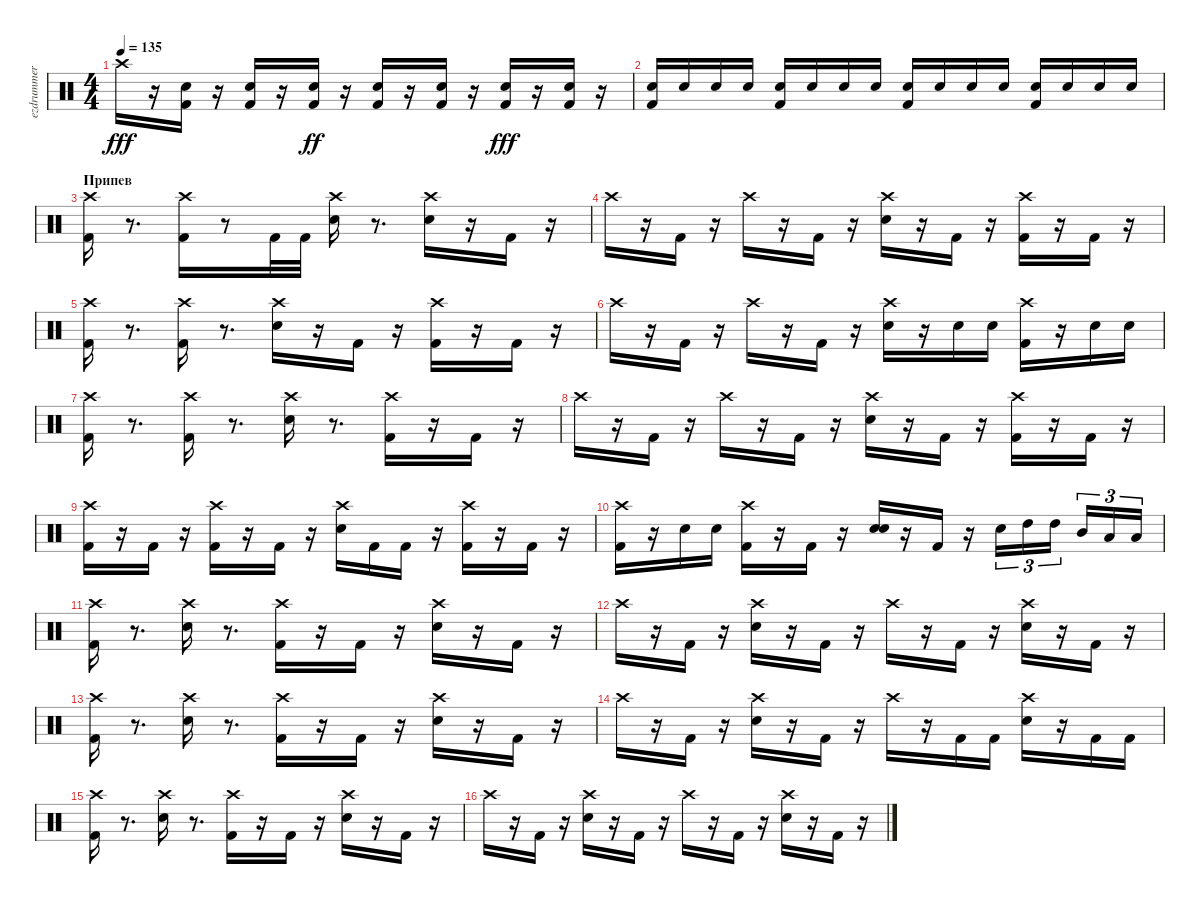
\track ("ezdrummer 01" "ezdrummer ") {instrument percussion}
\staff {score}
\articulation defaults
\ts (4 4)
\tempo 135
\clef neutral
\ks c "Crash high (hit)".16{dy fff}
r.16 ("Kick (hit) 2" "Snare (hit) 2").16 r.16 ("Kick (hit) 2" "Snare (hit) 2").16 r.16 ("Kick (hit) 2" "Snare (hit) 2").16{dy ff} r.16 ("Kick (hit) 2" "Snare (hit) 2").16 r.16 ("Kick (hit) 2" "Snare (hit) 2").16 r.16 ("Kick (hit) 2" "Snare (hit) 2").16{dy fff} r.16 ("Kick (hit) 2" "Snare (hit) 2").16 r.16 |
("Kick (hit) 2" "Snare (hit) 2").16 "Snare (hit) 2".16 "Snare (hit) 2".16 "Snare (hit) 2".16 ("Kick (hit) 2" "Snare (hit) 2").16 "Snare (hit) 2".16 "Snare (hit) 2".16 "Snare (hit) 2".16 ("Kick (hit) 2" "Snare (hit) 2").16 "Snare (hit) 2".16 "Snare (hit) 2".16 "Snare (hit) 2".16 ("Kick (hit) 2" "Snare (hit) 2").16 "Snare (hit) 2".16 "Snare (hit) 2".16 "Snare (hit) 2".16 |
\section ("" "Припев")
("Kick (hit) 2" "Crash high (hit)").16 r.8{d} ("Kick (hit) 2" "Crash high (hit)").16 r.8 "Kick (hit) 2".32 "Kick (hit) 2".32 ("Snare (hit) 2" "Crash high (hit)").16 r.8{d} ("Snare (hit) 2" "Crash high (hit)").16 r.16 "Kick (hit) 2".16 r.16 |
"Crash high (hit)".16 r.16 "Kick (hit) 2".16 r.16 "Crash high (hit)".16 r.16 "Kick (hit) 2".16 r.16 ("Snare (hit) 2" "Crash high (hit)").16 r.16 "Kick (hit) 2".16 r.16 ("Kick (hit) 2" "Crash high (hit)").16 r.16 "Kick (hit) 2".16 r.16 |
("Kick (hit) 2" "Crash high (hit)").16 r.8{d} ("Kick (hit) 2" "Crash high (hit)").16 r.8{d} ("Snare (hit) 2" "Crash high (hit)").16 r.16 "Kick (hit) 2".16 r.16 ("Kick (hit) 2" "Crash high (hit)").16 r.16 "Kick (hit) 2".16 r.16 |
"Crash high (hit)".16 r.16 "Kick (hit) 2".16 r.16 "Crash high (hit)".16 r.16 "Kick (hit) 2".16 r.16 ("Snare (hit) 2" "Crash high (hit)").16 r.16 "Snare (hit) 2".16 "Snare (hit) 2".16 ("Kick (hit) 2" "Crash high (hit)").16 r.16 "Snare (hit) 2".16 "Snare (hit) 2".16 |
("Kick (hit) 2" "Crash high (hit)").16 r.8{d} ("Kick (hit) 2" "Crash high (hit)").16 r.8{d} ("Snare (hit) 2" "Crash high (hit)").16 r.8{d} ("Kick (hit) 2" "Crash high (hit)").16 r.16 "Kick (hit) 2".16 r.16 |
"Crash high (hit)".16 r.16 "Kick (hit) 2".16 r.16 "Crash high (hit)".16 r.16 "Kick (hit) 2".16 r.16 ("Snare (hit) 2" "Crash high (hit)").16 r.16 "Kick (hit) 2".16 r.16 ("Kick (hit) 2" "Crash high (hit)").16 r.16 "Kick (hit) 2".16 r.16 |
("Kick (hit) 2" "Crash high (hit)").16 r.16 "Kick (hit) 2".16 r.16 ("Kick (hit) 2" "Crash high (hit)").16 r.16 "Kick (hit) 2".16 r.16 ("Snare (hit) 2" "Crash high (hit)").16 "Kick (hit) 2".16 "Kick (hit) 2".16 r.16 ("Kick (hit) 2" "Crash high (hit)").16 r.16 "Kick (hit) 2".16 r.16 |
("Kick (hit) 2" "Crash high (hit)").16 r.16 "Snare (hit) 2".16 "Snare (hit) 2".16 ("Kick (hit) 2" "Crash high (hit)").16 r.16 "Kick (hit) 2".16 r.16 ("Snare (hit) 2" "Snare (hit) 2").16 r.16 "Kick (hit) 2".16 r.16 "Snare (hit) 2".16{tu (3 2)} "High Tom (hit)".16{tu (3 2)} "High Tom (hit)".16{tu (3 2)} "Mid Tom (hit)".16{tu (3 2)} "Low Tom (hit)".16{tu (3 2)} "Low Tom (hit)".16{tu (3 2)} |
("Kick (hit) 2" "Crash high (hit)").16 r.8{d} ("Snare (hit) 2" "Crash high (hit)").16 r.8{d} ("Kick (hit) 2" "Crash high (hit)").16 r.16 "Kick (hit) 2".16 r.16 ("Snare (hit) 2" "Crash high (hit)").16 r.16 "Kick (hit) 2".16 r.16 |
"Crash high (hit)".16 r.16 "Kick (hit) 2".16 r.16 ("Snare (hit) 2" "Crash high (hit)").16 r.16 "Kick (hit) 2".16 r.16 "Crash high (hit)".16 r.16 "Kick (hit) 2".16 r.16 ("Snare (hit) 2" "Crash high (hit)").16 r.16 "Kick (hit) 2".16 r.16 |
("Kick (hit) 2" "Crash high (hit)").16 r.8{d} ("Snare (hit) 2" "Crash high (hit)").16 r.8{d} ("Kick (hit) 2" "Crash high (hit)").16 r.16 "Kick (hit) 2".16 r.16 ("Snare (hit) 2" "Crash high (hit)").16 r.16 "Kick (hit) 2".16 r.16 |
"Crash high (hit)".16 r.16 "Kick (hit) 2".16 r.16 ("Snare (hit) 2" "Crash high (hit)").16 r.16 "Kick (hit) 2".16 r.16 "Crash high (hit)".16 r.16 "Kick (hit) 2".16 "Kick (hit) 2".16 ("Snare (hit) 2" "Crash high (hit)").16 r.16 "Kick (hit) 2".16 "Kick (hit) 2".16 |
("Kick (hit) 2" "Crash high (hit)").16 r.8{d} ("Snare (hit) 2" "Crash high (hit)").16 r.8{d} ("Kick (hit) 2" "Crash high (hit)").16 r.16 "Kick (hit) 2".16 r.16 ("Snare (hit) 2" "Crash high (hit)").16 r.16 "Kick (hit) 2".16 r.16 |
"Crash high (hit)".16 r.16 "Kick (hit) 2".16 r.16 ("Snare (hit) 2" "Crash high (hit)").16 r.16 "Kick (hit) 2".16 r.16 "Crash high (hit)".16 r.16 "Kick (hit) 2".16 r.16 ("Snare (hit) 2" "Crash high (hit)").16 r.16 "Kick (hit) 2".16 r.16
